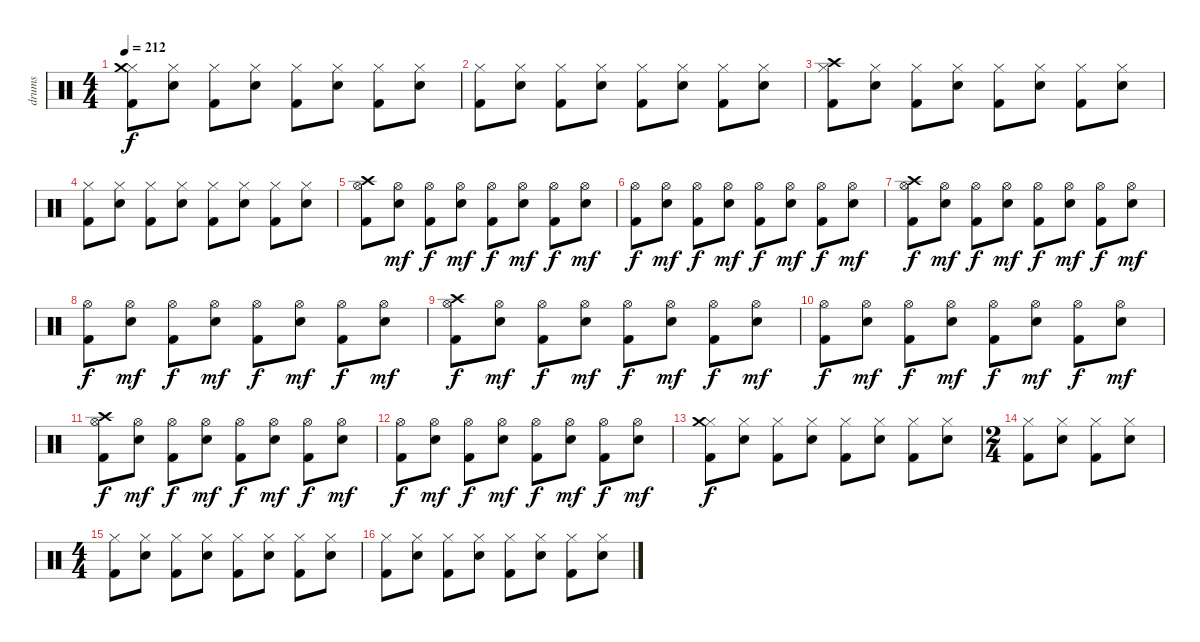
\track ("drums" "drums") {instrument percussion}
\staff {score}
\articulation defaults
\ts (4 4)
\tempo 212
\clef neutral
\ks c
("Kick (hit) 2" "Hi-Hat (closed)" "Crash medium (hit)").8{dy f} ("Snare (hit) 2" "Hi-Hat (closed)").8 ("Kick (hit) 2" "Hi-Hat (closed)").8 ("Snare (hit) 2" "Hi-Hat (closed)").8 ("Kick (hit) 2" "Hi-Hat (closed)").8 ("Snare (hit) 2" "Hi-Hat (closed)").8 ("Kick (hit) 2" "Hi-Hat (closed)").8 ("Snare (hit) 2" "Hi-Hat (closed)").8 |
("Kick (hit) 2" "Hi-Hat (closed)").8 ("Snare (hit) 2" "Hi-Hat (closed)").8 ("Kick (hit) 2" "Hi-Hat (closed)").8 ("Snare (hit) 2" "Hi-Hat (closed)").8 ("Kick (hit) 2" "Hi-Hat (closed)").8 ("Snare (hit) 2" "Hi-Hat (closed)").8 ("Kick (hit) 2" "Hi-Hat (closed)").8 ("Snare (hit) 2" "Hi-Hat (closed)").8 |
("Kick (hit) 2" "Hi-Hat (closed)" "Crash high (hit)").8 ("Snare (hit) 2" "Hi-Hat (closed)").8 ("Kick (hit) 2" "Hi-Hat (closed)").8 ("Snare (hit) 2" "Hi-Hat (closed)").8 ("Kick (hit) 2" "Hi-Hat (closed)").8 ("Snare (hit) 2" "Hi-Hat (closed)").8 ("Kick (hit) 2" "Hi-Hat (closed)").8 ("Snare (hit) 2" "Hi-Hat (closed)").8 |
("Kick (hit) 2" "Hi-Hat (closed)").8 ("Snare (hit) 2" "Hi-Hat (closed)").8 ("Kick (hit) 2" "Hi-Hat (closed)").8 ("Snare (hit) 2" "Hi-Hat (closed)").8 ("Kick (hit) 2" "Hi-Hat (closed)").8 ("Snare (hit) 2" "Hi-Hat (closed)").8 ("Kick (hit) 2" "Hi-Hat (closed)").8 ("Snare (hit) 2" "Hi-Hat (closed)").8 |
("Kick (hit) 2" "Hi-Hat (open)" "Crash high (hit)").8 ("Snare (hit) 2" "Hi-Hat (open)").8{dy mf} ("Kick (hit) 2" "Hi-Hat (open)").8{dy f} ("Snare (hit) 2" "Hi-Hat (open)").8{dy mf} ("Kick (hit) 2" "Hi-Hat (open)").8{dy f} ("Snare (hit) 2" "Hi-Hat (open)").8{dy mf} ("Kick (hit) 2" "Hi-Hat (open)").8{dy f} ("Snare (hit) 2" "Hi-Hat (open)").8{dy mf} |
("Kick (hit) 2" "Hi-Hat (open)").8{dy f} ("Snare (hit) 2" "Hi-Hat (open)").8{dy mf} ("Kick (hit) 2" "Hi-Hat (open)").8{dy f} ("Snare (hit) 2" "Hi-Hat (open)").8{dy mf} ("Kick (hit) 2" "Hi-Hat (open)").8{dy f} ("Snare (hit) 2" "Hi-Hat (open)").8{dy mf} ("Kick (hit) 2" "Hi-Hat (open)").8{dy f} ("Snare (hit) 2" "Hi-Hat (open)").8{dy mf} |
("Kick (hit) 2" "Hi-Hat (open)" "Crash high (hit)").8{dy f} ("Snare (hit) 2" "Hi-Hat (open)").8{dy mf} ("Kick (hit) 2" "Hi-Hat (open)").8{dy f} ("Snare (hit) 2" "Hi-Hat (open)").8{dy mf} ("Kick (hit) 2" "Hi-Hat (open)").8{dy f} ("Snare (hit) 2" "Hi-Hat (open)").8{dy mf} ("Kick (hit) 2" "Hi-Hat (open)").8{dy f} ("Snare (hit) 2" "Hi-Hat (open)").8{dy mf} |
("Kick (hit) 2" "Hi-Hat (open)").8{dy f} ("Snare (hit) 2" "Hi-Hat (open)").8{dy mf} ("Kick (hit) 2" "Hi-Hat (open)").8{dy f} ("Snare (hit) 2" "Hi-Hat (open)").8{dy mf} ("Kick (hit) 2" "Hi-Hat (open)").8{dy f} ("Snare (hit) 2" "Hi-Hat (open)").8{dy mf} ("Kick (hit) 2" "Hi-Hat (open)").8{dy f} ("Snare (hit) 2" "Hi-Hat (open)").8{dy mf} |
("Kick (hit) 2" "Hi-Hat (open)" "Crash high (hit)").8{dy f} ("Snare (hit) 2" "Hi-Hat (open)").8{dy mf} ("Kick (hit) 2" "Hi-Hat (open)").8{dy f} ("Snare (hit) 2" "Hi-Hat (open)").8{dy mf} ("Kick (hit) 2" "Hi-Hat (open)").8{dy f} ("Snare (hit) 2" "Hi-Hat (open)").8{dy mf} ("Kick (hit) 2" "Hi-Hat (open)").8{dy f} ("Snare (hit) 2" "Hi-Hat (open)").8{dy mf} |
("Kick (hit) 2" "Hi-Hat (open)").8{dy f} ("Snare (hit) 2" "Hi-Hat (open)").8{dy mf} ("Kick (hit) 2" "Hi-Hat (open)").8{dy f} ("Snare (hit) 2" "Hi-Hat (open)").8{dy mf} ("Kick (hit) 2" "Hi-Hat (open)").8{dy f} ("Snare (hit) 2" "Hi-Hat (open)").8{dy mf} ("Kick (hit) 2" "Hi-Hat (open)").8{dy f} ("Snare (hit) 2" "Hi-Hat (open)").8{dy mf} |
("Kick (hit) 2" "Hi-Hat (open)" "Crash high (hit)").8{dy f} ("Snare (hit) 2" "Hi-Hat (open)").8{dy mf} ("Kick (hit) 2" "Hi-Hat (open)").8{dy f} ("Snare (hit) 2" "Hi-Hat (open)").8{dy mf} ("Kick (hit) 2" "Hi-Hat (open)").8{dy f} ("Snare (hit) 2" "Hi-Hat (open)").8{dy mf} ("Kick (hit) 2" "Hi-Hat (open)").8{dy f} ("Snare (hit) 2" "Hi-Hat (open)").8{dy mf} |
("Kick (hit) 2" "Hi-Hat (open)").8{dy f} ("Snare (hit) 2" "Hi-Hat (open)").8{dy mf} ("Kick (hit) 2" "Hi-Hat (open)").8{dy f} ("Snare (hit) 2" "Hi-Hat (open)").8{dy mf} ("Kick (hit) 2" "Hi-Hat (open)").8{dy f} ("Snare (hit) 2" "Hi-Hat (open)").8{dy mf} ("Kick (hit) 2" "Hi-Hat (open)").8{dy f} ("Snare (hit) 2" "Hi-Hat (open)").8{dy mf} |
("Kick (hit) 2" "Hi-Hat (closed)" "Crash medium (hit)").8{dy f} ("Snare (hit) 2" "Hi-Hat (closed)").8 ("Kick (hit) 2" "Hi-Hat (closed)").8 ("Snare (hit) 2" "Hi-Hat (closed)").8 ("Kick (hit) 2" "Hi-Hat (closed)").8 ("Snare (hit) 2" "Hi-Hat (closed)").8 ("Kick (hit) 2" "Hi-Hat (closed)").8 ("Snare (hit) 2" "Hi-Hat (closed)").8 |
\ts (2 4)
("Kick (hit) 2" "Hi-Hat (closed)").8 ("Snare (hit) 2" "Hi-Hat (closed)").8 ("Kick (hit) 2" "Hi-Hat (closed)").8 ("Snare (hit) 2" "Hi-Hat (closed)").8 |
\ts (4 4)
("Kick (hit) 2" "Hi-Hat (closed)").8 ("Snare (hit) 2" "Hi-Hat (closed)").8 ("Kick (hit) 2" "Hi-Hat (closed)").8 ("Snare (hit) 2" "Hi-Hat (closed)").8 ("Kick (hit) 2" "Hi-Hat (closed)").8 ("Snare (hit) 2" "Hi-Hat (closed)").8 ("Kick (hit) 2" "Hi-Hat (closed)").8 ("Snare (hit) 2" "Hi-Hat (closed)").8 |
("Kick (hit) 2" "Hi-Hat (closed)").8 ("Snare (hit) 2" "Hi-Hat (closed)").8 ("Kick (hit) 2" "Hi-Hat (closed)").8 ("Snare (hit) 2" "Hi-Hat (closed)").8 ("Kick (hit) 2" "Hi-Hat (closed)").8 ("Snare (hit) 2" "Hi-Hat (closed)").8 ("Kick (hit) 2" "Hi-Hat (closed)").8 ("Snare (hit) 2" "Hi-Hat (closed)").8
